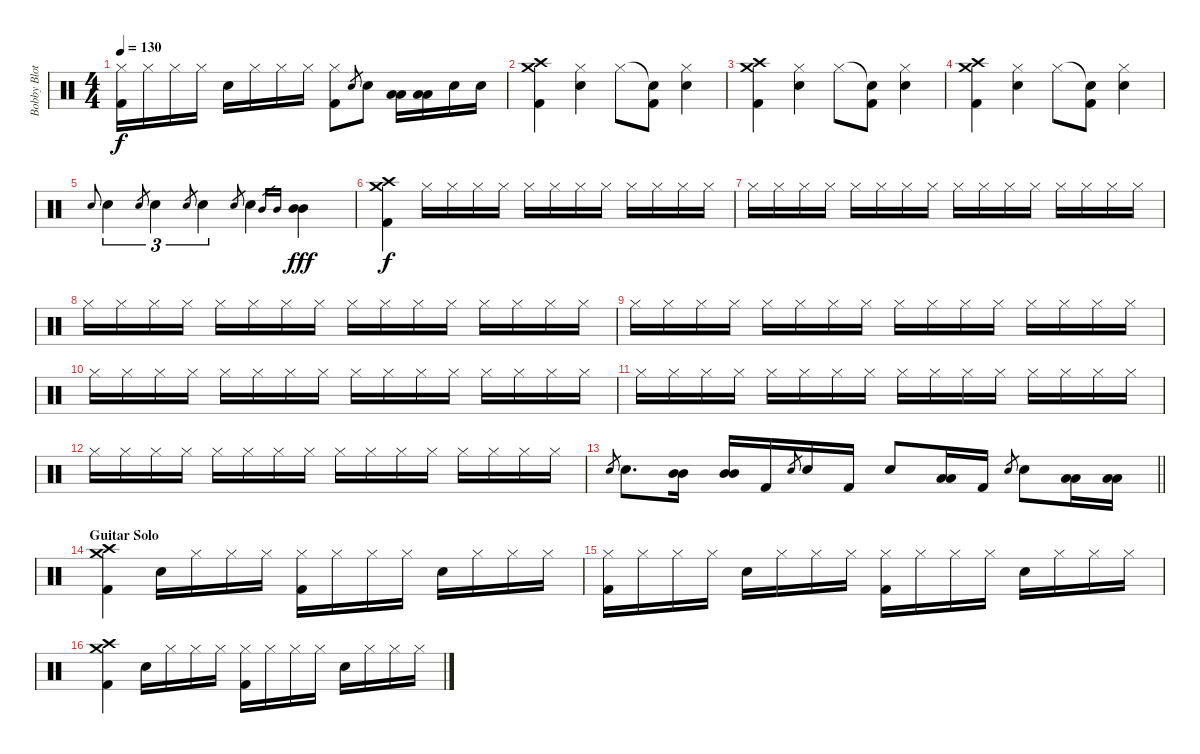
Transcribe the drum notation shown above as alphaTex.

\track ("Bobby Blotzer - Drums" "Bobby Blot") {instrument percussion}
\staff {score}
\articulation defaults
\ts (4 4)
\tempo 130
\clef neutral
\ks c
("Hi-Hat (closed)" "Kick (hit) 2").16{dy f} "Hi-Hat (closed)".16 "Hi-Hat (closed)".16 "Hi-Hat (closed)".16 "Snare (hit) 2".16 "Hi-Hat (closed)".16 "Hi-Hat (closed)".16 "Hi-Hat (closed)".16 ("Hi-Hat (closed)" "Kick (hit) 2").8 "Snare (hit) 2".8{gr} "Snare (hit) 2".8 ("Low Tom (hit)" "Low Tom (hit)").16 ("Low Tom (hit)" "Low Tom (hit)").16 "Snare (hit) 2".16 "Snare (hit) 2".16 |
("Crash medium (hit)" "Crash high (hit)" "Kick (hit) 2").4 ("Hi-Hat (closed)" "Snare (hit) 2").4 "Hi-Hat (closed)".8 ("Snare (hit)"{t} "Kick (hit) 2").8 ("Hi-Hat (closed)" "Snare (hit) 2").4 |
("Crash medium (hit)" "Crash high (hit)" "Kick (hit) 2").4 ("Hi-Hat (closed)" "Snare (hit) 2").4 "Hi-Hat (closed)".8 ("Snare (hit)"{t} "Kick (hit) 2").8 ("Hi-Hat (closed)" "Snare (hit) 2").4 |
("Crash medium (hit)" "Crash high (hit)" "Kick (hit) 2").4 ("Hi-Hat (closed)" "Snare (hit) 2").4 "Hi-Hat (closed)".8 ("Snare (hit)"{t} "Kick (hit) 2").8 ("Hi-Hat (closed)" "Snare (hit) 2").4 |
"Snare (hit) 2".8{gr onbeat} "Snare (hit) 2".4{tu (3 2)} "Snare (hit) 2".8{gr} "Snare (hit) 2".4{tu (3 2)} "Snare (hit) 2".8{gr} "Snare (hit) 2".4{tu (3 2)} "Snare (hit) 2".8{gr} "Snare (hit) 2".4 "Mid Tom (hit)".16{gr} "Mid Tom (hit)".16{gr} ("Mid Tom (hit)" "Mid Tom (hit)").4{dy fff} |
("Crash medium (hit)" "Crash high (hit)" "Kick (hit) 2").4{dy f} "Hi-Hat (closed)".16 "Hi-Hat (closed)".16 "Hi-Hat (closed)".16 "Hi-Hat (closed)".16 "Hi-Hat (closed)".16 "Hi-Hat (closed)".16 "Hi-Hat (closed)".16 "Hi-Hat (closed)".16 "Hi-Hat (closed)".16 "Hi-Hat (closed)".16 "Hi-Hat (closed)".16 "Hi-Hat (closed)".16 |
"Hi-Hat (closed)".16 "Hi-Hat (closed)".16 "Hi-Hat (closed)".16 "Hi-Hat (closed)".16 "Hi-Hat (closed)".16 "Hi-Hat (closed)".16 "Hi-Hat (closed)".16 "Hi-Hat (closed)".16 "Hi-Hat (closed)".16 "Hi-Hat (closed)".16 "Hi-Hat (closed)".16 "Hi-Hat (closed)".16 "Hi-Hat (closed)".16 "Hi-Hat (closed)".16 "Hi-Hat (closed)".16 "Hi-Hat (closed)".16 |
"Hi-Hat (closed)".16 "Hi-Hat (closed)".16 "Hi-Hat (closed)".16 "Hi-Hat (closed)".16 "Hi-Hat (closed)".16 "Hi-Hat (closed)".16 "Hi-Hat (closed)".16 "Hi-Hat (closed)".16 "Hi-Hat (closed)".16 "Hi-Hat (closed)".16 "Hi-Hat (closed)".16 "Hi-Hat (closed)".16 "Hi-Hat (closed)".16 "Hi-Hat (closed)".16 "Hi-Hat (closed)".16 "Hi-Hat (closed)".16 |
"Hi-Hat (closed)".16 "Hi-Hat (closed)".16 "Hi-Hat (closed)".16 "Hi-Hat (closed)".16 "Hi-Hat (closed)".16 "Hi-Hat (closed)".16 "Hi-Hat (closed)".16 "Hi-Hat (closed)".16 "Hi-Hat (closed)".16 "Hi-Hat (closed)".16 "Hi-Hat (closed)".16 "Hi-Hat (closed)".16 "Hi-Hat (closed)".16 "Hi-Hat (closed)".16 "Hi-Hat (closed)".16 "Hi-Hat (closed)".16 |
"Hi-Hat (closed)".16 "Hi-Hat (closed)".16 "Hi-Hat (closed)".16 "Hi-Hat (closed)".16 "Hi-Hat (closed)".16 "Hi-Hat (closed)".16 "Hi-Hat (closed)".16 "Hi-Hat (closed)".16 "Hi-Hat (closed)".16 "Hi-Hat (closed)".16 "Hi-Hat (closed)".16 "Hi-Hat (closed)".16 "Hi-Hat (closed)".16 "Hi-Hat (closed)".16 "Hi-Hat (closed)".16 "Hi-Hat (closed)".16 |
"Hi-Hat (closed)".16 "Hi-Hat (closed)".16 "Hi-Hat (closed)".16 "Hi-Hat (closed)".16 "Hi-Hat (closed)".16 "Hi-Hat (closed)".16 "Hi-Hat (closed)".16 "Hi-Hat (closed)".16 "Hi-Hat (closed)".16 "Hi-Hat (closed)".16 "Hi-Hat (closed)".16 "Hi-Hat (closed)".16 "Hi-Hat (closed)".16 "Hi-Hat (closed)".16 "Hi-Hat (closed)".16 "Hi-Hat (closed)".16 |
"Hi-Hat (closed)".16 "Hi-Hat (closed)".16 "Hi-Hat (closed)".16 "Hi-Hat (closed)".16 "Hi-Hat (closed)".16 "Hi-Hat (closed)".16 "Hi-Hat (closed)".16 "Hi-Hat (closed)".16 "Hi-Hat (closed)".16 "Hi-Hat (closed)".16 "Hi-Hat (closed)".16 "Hi-Hat (closed)".16 "Hi-Hat (closed)".16 "Hi-Hat (closed)".16 "Hi-Hat (closed)".16 "Hi-Hat (closed)".16 |
\barLineRight lightlight "Snare (hit) 2".8{gr} "Snare (hit) 2".8{d}
("Mid Tom (hit)" "Mid Tom (hit)").16 ("Mid Tom (hit)" "Mid Tom (hit)").16 "Kick (hit) 2".16 "Snare (hit) 2".8{gr} "Snare (hit) 2".16 "Kick (hit) 2".16 "Snare (hit) 2".8 ("Low Tom (hit)" "Low Tom (hit)").16 "Kick (hit) 2".16 "Snare (hit) 2".8{gr} "Snare (hit) 2".8 ("Low Tom (hit)" "Low Tom (hit)").16 ("Low Tom (hit)" "Low Tom (hit)").16 |
\section ("" "Guitar Solo")
("Crash medium (hit)" "Crash high (hit)" "Kick (hit) 2").4 "Snare (hit) 2".16 "Hi-Hat (closed)".16 "Hi-Hat (closed)".16 "Hi-Hat (closed)".16 ("Hi-Hat (closed)" "Kick (hit) 2").16 "Hi-Hat (closed)".16 "Hi-Hat (closed)".16 "Hi-Hat (closed)".16 "Snare (hit) 2".16 "Hi-Hat (closed)".16 "Hi-Hat (closed)".16 "Hi-Hat (closed)".16 |
("Hi-Hat (closed)" "Kick (hit) 2").16 "Hi-Hat (closed)".16 "Hi-Hat (closed)".16 "Hi-Hat (closed)".16 "Snare (hit) 2".16 "Hi-Hat (closed)".16 "Hi-Hat (closed)".16 "Hi-Hat (closed)".16 ("Hi-Hat (closed)" "Kick (hit) 2").16 "Hi-Hat (closed)".16 "Hi-Hat (closed)".16 "Hi-Hat (closed)".16 "Snare (hit) 2".16 "Hi-Hat (closed)".16 "Hi-Hat (closed)".16 "Hi-Hat (closed)".16 |
("Crash medium (hit)" "Crash high (hit)" "Kick (hit) 2").4 "Snare (hit) 2".16 "Hi-Hat (closed)".16 "Hi-Hat (closed)".16 "Hi-Hat (closed)".16 ("Hi-Hat (closed)" "Kick (hit) 2").16 "Hi-Hat (closed)".16 "Hi-Hat (closed)".16 "Hi-Hat (closed)".16 "Snare (hit) 2".16 "Hi-Hat (closed)".16 "Hi-Hat (closed)".16 "Hi-Hat (closed)".16
